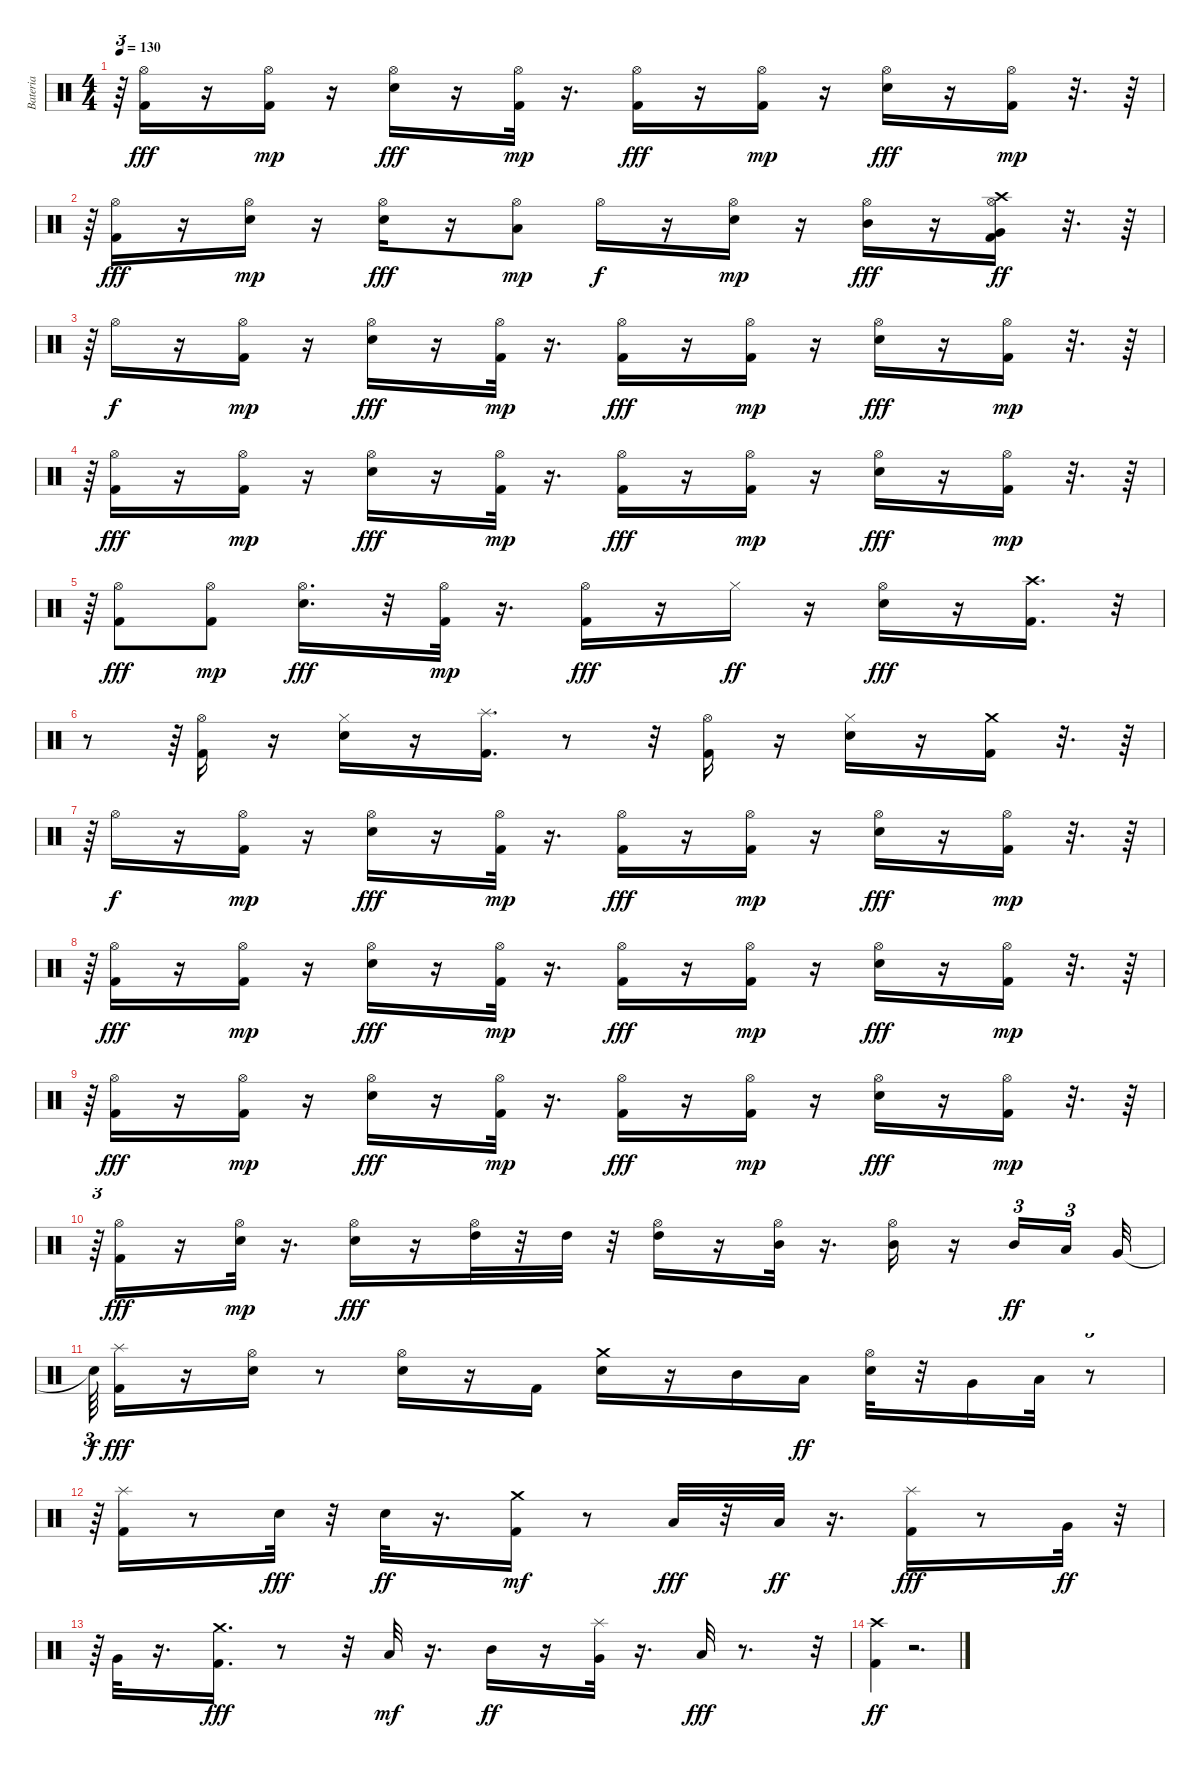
\track ("Bateria" "Bateria") {instrument percussion}
\staff {score}
\articulation defaults
\ts (4 4)
\tempo 130
\clef neutral
\ks c
r.64{tu (3 2) dy mp} ("Kick (hit) 2" "Hi-Hat (open)").16{dy fff} r.16 ("Kick (hit) 2" "Hi-Hat (open)").16{dy mp} r.16 ("Electric Snare (hit)" "Hi-Hat (open)").16{dy fff} r.16 ("Kick (hit) 2" "Hi-Hat (open)").32{dy mp} r.16{d} ("Kick (hit) 2" "Hi-Hat (open)").16{dy fff} r.16 ("Kick (hit) 2" "Hi-Hat (open)").16{dy mp} r.16 ("Electric Snare (hit)" "Hi-Hat (open)").16{dy fff} r.16 ("Kick (hit) 2" "Hi-Hat (open)").16{dy mp} r.32{d} r.64 |
r.64{tu (3 2)} ("Kick (hit) 2" "Hi-Hat (open)").16{dy fff} r.16 ("Electric Snare (hit)" "Hi-Hat (open)").16{dy mp} r.16 ("Electric Snare (hit)" "Hi-Hat (open)").16{dy fff} r.16 ("Low Tom (hit)" "Hi-Hat (open)").8{dy mp} "Hi-Hat (open)".16{dy f} r.16 ("Electric Snare (hit)" "Hi-Hat (open)").16{dy mp} r.16 ("Hi-Hat (open)" "Mid Tom (hit)").16{dy fff} r.16 ("Kick (hit) 2" "Very Low Tom (hit)" "Hi-Hat (open)" "Crash high (hit)").16{dy ff} r.32{d} r.64 |
r.64{tu (3 2)} "Hi-Hat (open)".16{dy f} r.16 ("Kick (hit) 2" "Hi-Hat (open)").16{dy mp} r.16 ("Electric Snare (hit)" "Hi-Hat (open)").16{dy fff} r.16 ("Kick (hit) 2" "Hi-Hat (open)").32{dy mp} r.16{d} ("Kick (hit) 2" "Hi-Hat (open)").16{dy fff} r.16 ("Kick (hit) 2" "Hi-Hat (open)").16{dy mp} r.16 ("Electric Snare (hit)" "Hi-Hat (open)").16{dy fff} r.16 ("Kick (hit) 2" "Hi-Hat (open)").16{dy mp} r.32{d} r.64 |
r.64{tu (3 2)} ("Kick (hit) 2" "Hi-Hat (open)").16{dy fff} r.16 ("Kick (hit) 2" "Hi-Hat (open)").16{dy mp} r.16 ("Electric Snare (hit)" "Hi-Hat (open)").16{dy fff} r.16 ("Kick (hit) 2" "Hi-Hat (open)").32{dy mp} r.16{d} ("Kick (hit) 2" "Hi-Hat (open)").16{dy fff} r.16 ("Kick (hit) 2" "Hi-Hat (open)").16{dy mp} r.16 ("Electric Snare (hit)" "Hi-Hat (open)").16{dy fff} r.16 ("Kick (hit) 2" "Hi-Hat (open)").16{dy mp} r.32{d} r.64 |
r.64{tu (3 2)} ("Kick (hit) 2" "Hi-Hat (open)").8{dy fff} ("Kick (hit) 2" "Hi-Hat (open)").8{dy mp} ("Electric Snare (hit)" "Hi-Hat (open)").16{d dy fff} r.32 ("Kick (hit) 2" "Hi-Hat (open)").32{dy mp} r.16{d} ("Kick (hit) 2" "Hi-Hat (open)").16{dy fff} r.16 "Hi-Hat (closed)".16{dy ff} r.16 ("Electric Snare (hit)" "Hi-Hat (open)").16{dy fff} r.16 ("Kick (hit) 2" "Crash high (hit)").16{d} r.32{tu (3 2)} |
r.8 r.64{tu (3 2)} ("Kick (hit) 2" "Hi-Hat (open)").16 r.16 ("Electric Snare (hit)" "Hi-Hat (closed)").16 r.16 ("Kick (hit) 2" "Splash (hit)").16{d} r.8 r.32 ("Kick (hit) 2" "Hi-Hat (open)").16 r.16 ("Electric Snare (hit)" "Hi-Hat (closed)").16 r.16 ("Kick (hit) 2" "Crash medium (hit)").16 r.32{d} r.64 |
r.64{tu (3 2)} "Hi-Hat (open)".16{dy f} r.16 ("Kick (hit) 2" "Hi-Hat (open)").16{dy mp} r.16 ("Electric Snare (hit)" "Hi-Hat (open)").16{dy fff} r.16 ("Kick (hit) 2" "Hi-Hat (open)").32{dy mp} r.16{d} ("Kick (hit) 2" "Hi-Hat (open)").16{dy fff} r.16 ("Kick (hit) 2" "Hi-Hat (open)").16{dy mp} r.16 ("Electric Snare (hit)" "Hi-Hat (open)").16{dy fff} r.16 ("Kick (hit) 2" "Hi-Hat (open)").16{dy mp} r.32{d} r.64 |
r.64{tu (3 2)} ("Kick (hit) 2" "Hi-Hat (open)").16{dy fff} r.16 ("Kick (hit) 2" "Hi-Hat (open)").16{dy mp} r.16 ("Electric Snare (hit)" "Hi-Hat (open)").16{dy fff} r.16 ("Kick (hit) 2" "Hi-Hat (open)").32{dy mp} r.16{d} ("Kick (hit) 2" "Hi-Hat (open)").16{dy fff} r.16 ("Kick (hit) 2" "Hi-Hat (open)").16{dy mp} r.16 ("Electric Snare (hit)" "Hi-Hat (open)").16{dy fff} r.16 ("Kick (hit) 2" "Hi-Hat (open)").16{dy mp} r.32{d} r.64 |
r.64{tu (3 2)} ("Kick (hit) 2" "Hi-Hat (open)").16{dy fff} r.16 ("Kick (hit) 2" "Hi-Hat (open)").16{dy mp} r.16 ("Electric Snare (hit)" "Hi-Hat (open)").16{dy fff} r.16 ("Kick (hit) 2" "Hi-Hat (open)").32{dy mp} r.16{d} ("Kick (hit) 2" "Hi-Hat (open)").16{dy fff} r.16 ("Kick (hit) 2" "Hi-Hat (open)").16{dy mp} r.16 ("Electric Snare (hit)" "Hi-Hat (open)").16{dy fff} r.16 ("Kick (hit) 2" "Hi-Hat (open)").16{dy mp} r.32{d} r.64 |
r.64{tu (3 2)} ("Kick (hit) 2" "Hi-Hat (open)").16{dy fff} r.16 ("Electric Snare (hit)" "Hi-Hat (open)").32{dy mp} r.16{d} ("Electric Snare (hit)" "Hi-Hat (open)").16{dy fff} r.16 ("Hi-Hat (open)" "High Tom (hit)").32 r.32 "High Tom (hit)".32 r.32 ("Hi-Hat (open)" "High Tom (hit)").16 r.16 ("Hi-Hat (open)" "Mid Tom (hit)").32 r.16{d} ("Hi-Hat (open)" "Mid Tom (hit)").16 r.16 "Mid Tom (hit)".16{tu (3 2) dy ff} "Low Tom (hit)".16{tu (3 2) beam splitsecondary} "Very Low Tom (hit)".32 |
"Snare (hit)"{t}.64{tu (3 2) dy f} ("Kick (hit) 2" "Splash (hit)").16{dy fff} r.16 ("Electric Snare (hit)" "Hi-Hat (open)").16 r.8 ("Electric Snare (hit)" "Hi-Hat (open)").16 r.16 "Kick (hit) 2".16 ("Electric Snare (hit)" "Crash medium (hit)").16 r.16 "Mid Tom (hit)".16 "Low Tom (hit)".16{dy ff} ("Electric Snare (hit)" "Hi-Hat (open)").32 r.32 "Very Low Tom (hit)".16 "Low Tom (hit)".32 r.8{tu (3 2)} |
r.64{tu (3 2)} ("Kick (hit) 2" "Splash (hit)").16 r.8 "Electric Snare (hit)".32{dy fff} r.32 "Electric Snare (hit)".32{dy ff} r.16{d} ("Kick (hit) 2" "Crash medium (hit)").16{dy mf} r.8 "Low Tom (hit)".32{dy fff} r.32 "Low Tom (hit)".32{dy ff} r.16{d} ("Kick (hit) 2" "Splash (hit)").16{dy fff} r.8 "Very Low Tom (hit)".32{dy ff} r.32{tu (3 2)} |
r.64{tu (3 2)} "Very Low Tom (hit)".32 r.16{d} ("Kick (hit) 2" "Crash medium (hit)").16{d dy fff} r.8 r.32 "Low Tom (hit)".32{dy mf} r.16{d} "Mid Tom (hit)".16{dy ff} r.16 ("Very Low Tom (hit)" "Splash (hit)").32 r.16{d} "Low Tom (hit)".32{dy fff} r.8{d} r.32{tu (3 2)} |
("Kick (hit) 2" "Crash high (hit)").4{dy ff} r.2{d}
